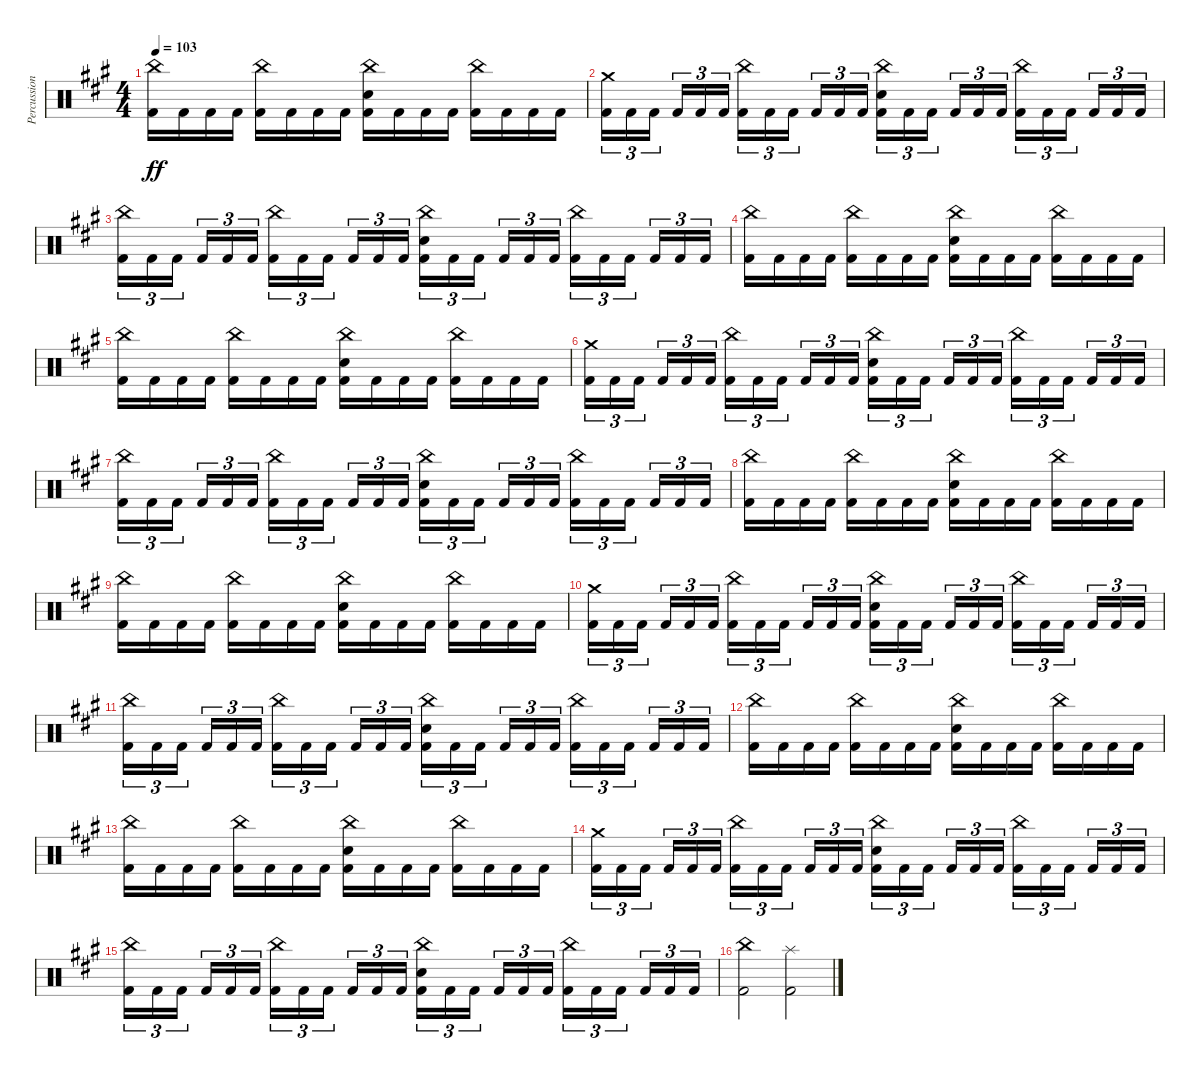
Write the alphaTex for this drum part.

\track ("Percussion" "Percussion") {instrument percussion bank 127}
\staff {score}
\articulation defaults
\ts (4 4)
\tempo 103
\clef neutral
\ks a
("China (hit)" "Kick (hit) 2").16{dy ff} "Kick (hit) 2".16 "Kick (hit) 2".16 "Kick (hit) 2".16 ("China (hit)" "Kick (hit) 2").16 "Kick (hit) 2".16 "Kick (hit) 2".16 "Kick (hit) 2".16 ("China (hit)" "Electric Snare (hit)" "Kick (hit) 2").16 "Kick (hit) 2".16 "Kick (hit) 2".16 "Kick (hit) 2".16 ("China (hit)" "Kick (hit) 2").16 "Kick (hit) 2".16 "Kick (hit) 2".16 "Kick (hit) 2".16 |
("Crash medium (hit)" "Kick (hit) 2").16{tu (3 2)} "Kick (hit) 2".16{tu (3 2)} "Kick (hit) 2".16{tu (3 2) beam splitsecondary} "Kick (hit) 2".16{tu (3 2)} "Kick (hit) 2".16{tu (3 2)} "Kick (hit) 2".16{tu (3 2)} ("China (hit)" "Kick (hit) 2").16{tu (3 2)} "Kick (hit) 2".16{tu (3 2)} "Kick (hit) 2".16{tu (3 2) beam splitsecondary} "Kick (hit) 2".16{tu (3 2)} "Kick (hit) 2".16{tu (3 2)} "Kick (hit) 2".16{tu (3 2)} ("China (hit)" "Electric Snare (hit)" "Kick (hit) 2").16{tu (3 2)} "Kick (hit) 2".16{tu (3 2)} "Kick (hit) 2".16{tu (3 2) beam splitsecondary} "Kick (hit) 2".16{tu (3 2)} "Kick (hit) 2".16{tu (3 2)} "Kick (hit) 2".16{tu (3 2)} ("China (hit)" "Kick (hit) 2").16{tu (3 2)} "Kick (hit) 2".16{tu (3 2)} "Kick (hit) 2".16{tu (3 2) beam splitsecondary} "Kick (hit) 2".16{tu (3 2)} "Kick (hit) 2".16{tu (3 2)} "Kick (hit) 2".16{tu (3 2)} |
("China (hit)" "Kick (hit) 2").16{tu (3 2)} "Kick (hit) 2".16{tu (3 2)} "Kick (hit) 2".16{tu (3 2) beam splitsecondary} "Kick (hit) 2".16{tu (3 2)} "Kick (hit) 2".16{tu (3 2)} "Kick (hit) 2".16{tu (3 2)} ("China (hit)" "Kick (hit) 2").16{tu (3 2)} "Kick (hit) 2".16{tu (3 2)} "Kick (hit) 2".16{tu (3 2) beam splitsecondary} "Kick (hit) 2".16{tu (3 2)} "Kick (hit) 2".16{tu (3 2)} "Kick (hit) 2".16{tu (3 2)} ("China (hit)" "Electric Snare (hit)" "Kick (hit) 2").16{tu (3 2)} "Kick (hit) 2".16{tu (3 2)} "Kick (hit) 2".16{tu (3 2) beam splitsecondary} "Kick (hit) 2".16{tu (3 2)} "Kick (hit) 2".16{tu (3 2)} "Kick (hit) 2".16{tu (3 2)} ("China (hit)" "Kick (hit) 2").16{tu (3 2)} "Kick (hit) 2".16{tu (3 2)} "Kick (hit) 2".16{tu (3 2) beam splitsecondary} "Kick (hit) 2".16{tu (3 2)} "Kick (hit) 2".16{tu (3 2)} "Kick (hit) 2".16{tu (3 2)} |
("China (hit)" "Kick (hit) 2").16 "Kick (hit) 2".16 "Kick (hit) 2".16 "Kick (hit) 2".16 ("China (hit)" "Kick (hit) 2").16 "Kick (hit) 2".16 "Kick (hit) 2".16 "Kick (hit) 2".16 ("China (hit)" "Electric Snare (hit)" "Kick (hit) 2").16 "Kick (hit) 2".16 "Kick (hit) 2".16 "Kick (hit) 2".16 ("China (hit)" "Kick (hit) 2").16 "Kick (hit) 2".16 "Kick (hit) 2".16 "Kick (hit) 2".16 |
("China (hit)" "Kick (hit) 2").16 "Kick (hit) 2".16 "Kick (hit) 2".16 "Kick (hit) 2".16 ("China (hit)" "Kick (hit) 2").16 "Kick (hit) 2".16 "Kick (hit) 2".16 "Kick (hit) 2".16 ("China (hit)" "Electric Snare (hit)" "Kick (hit) 2").16 "Kick (hit) 2".16 "Kick (hit) 2".16 "Kick (hit) 2".16 ("China (hit)" "Kick (hit) 2").16 "Kick (hit) 2".16 "Kick (hit) 2".16 "Kick (hit) 2".16 |
("Crash medium (hit)" "Kick (hit) 2").16{tu (3 2)} "Kick (hit) 2".16{tu (3 2)} "Kick (hit) 2".16{tu (3 2) beam splitsecondary} "Kick (hit) 2".16{tu (3 2)} "Kick (hit) 2".16{tu (3 2)} "Kick (hit) 2".16{tu (3 2)} ("China (hit)" "Kick (hit) 2").16{tu (3 2)} "Kick (hit) 2".16{tu (3 2)} "Kick (hit) 2".16{tu (3 2) beam splitsecondary} "Kick (hit) 2".16{tu (3 2)} "Kick (hit) 2".16{tu (3 2)} "Kick (hit) 2".16{tu (3 2)} ("China (hit)" "Electric Snare (hit)" "Kick (hit) 2").16{tu (3 2)} "Kick (hit) 2".16{tu (3 2)} "Kick (hit) 2".16{tu (3 2) beam splitsecondary} "Kick (hit) 2".16{tu (3 2)} "Kick (hit) 2".16{tu (3 2)} "Kick (hit) 2".16{tu (3 2)} ("China (hit)" "Kick (hit) 2").16{tu (3 2)} "Kick (hit) 2".16{tu (3 2)} "Kick (hit) 2".16{tu (3 2) beam splitsecondary} "Kick (hit) 2".16{tu (3 2)} "Kick (hit) 2".16{tu (3 2)} "Kick (hit) 2".16{tu (3 2)} |
("China (hit)" "Kick (hit) 2").16{tu (3 2)} "Kick (hit) 2".16{tu (3 2)} "Kick (hit) 2".16{tu (3 2) beam splitsecondary} "Kick (hit) 2".16{tu (3 2)} "Kick (hit) 2".16{tu (3 2)} "Kick (hit) 2".16{tu (3 2)} ("China (hit)" "Kick (hit) 2").16{tu (3 2)} "Kick (hit) 2".16{tu (3 2)} "Kick (hit) 2".16{tu (3 2) beam splitsecondary} "Kick (hit) 2".16{tu (3 2)} "Kick (hit) 2".16{tu (3 2)} "Kick (hit) 2".16{tu (3 2)} ("China (hit)" "Electric Snare (hit)" "Kick (hit) 2").16{tu (3 2)} "Kick (hit) 2".16{tu (3 2)} "Kick (hit) 2".16{tu (3 2) beam splitsecondary} "Kick (hit) 2".16{tu (3 2)} "Kick (hit) 2".16{tu (3 2)} "Kick (hit) 2".16{tu (3 2)} ("China (hit)" "Kick (hit) 2").16{tu (3 2)} "Kick (hit) 2".16{tu (3 2)} "Kick (hit) 2".16{tu (3 2) beam splitsecondary} "Kick (hit) 2".16{tu (3 2)} "Kick (hit) 2".16{tu (3 2)} "Kick (hit) 2".16{tu (3 2)} |
("China (hit)" "Kick (hit) 2").16 "Kick (hit) 2".16 "Kick (hit) 2".16 "Kick (hit) 2".16 ("China (hit)" "Kick (hit) 2").16 "Kick (hit) 2".16 "Kick (hit) 2".16 "Kick (hit) 2".16 ("China (hit)" "Electric Snare (hit)" "Kick (hit) 2").16 "Kick (hit) 2".16 "Kick (hit) 2".16 "Kick (hit) 2".16 ("China (hit)" "Kick (hit) 2").16 "Kick (hit) 2".16 "Kick (hit) 2".16 "Kick (hit) 2".16 |
("China (hit)" "Kick (hit) 2").16 "Kick (hit) 2".16 "Kick (hit) 2".16 "Kick (hit) 2".16 ("China (hit)" "Kick (hit) 2").16 "Kick (hit) 2".16 "Kick (hit) 2".16 "Kick (hit) 2".16 ("China (hit)" "Electric Snare (hit)" "Kick (hit) 2").16 "Kick (hit) 2".16 "Kick (hit) 2".16 "Kick (hit) 2".16 ("China (hit)" "Kick (hit) 2").16 "Kick (hit) 2".16 "Kick (hit) 2".16 "Kick (hit) 2".16 |
("Crash medium (hit)" "Kick (hit) 2").16{tu (3 2)} "Kick (hit) 2".16{tu (3 2)} "Kick (hit) 2".16{tu (3 2) beam splitsecondary} "Kick (hit) 2".16{tu (3 2)} "Kick (hit) 2".16{tu (3 2)} "Kick (hit) 2".16{tu (3 2)} ("China (hit)" "Kick (hit) 2").16{tu (3 2)} "Kick (hit) 2".16{tu (3 2)} "Kick (hit) 2".16{tu (3 2) beam splitsecondary} "Kick (hit) 2".16{tu (3 2)} "Kick (hit) 2".16{tu (3 2)} "Kick (hit) 2".16{tu (3 2)} ("China (hit)" "Electric Snare (hit)" "Kick (hit) 2").16{tu (3 2)} "Kick (hit) 2".16{tu (3 2)} "Kick (hit) 2".16{tu (3 2) beam splitsecondary} "Kick (hit) 2".16{tu (3 2)} "Kick (hit) 2".16{tu (3 2)} "Kick (hit) 2".16{tu (3 2)} ("China (hit)" "Kick (hit) 2").16{tu (3 2)} "Kick (hit) 2".16{tu (3 2)} "Kick (hit) 2".16{tu (3 2) beam splitsecondary} "Kick (hit) 2".16{tu (3 2)} "Kick (hit) 2".16{tu (3 2)} "Kick (hit) 2".16{tu (3 2)} |
("China (hit)" "Kick (hit) 2").16{tu (3 2)} "Kick (hit) 2".16{tu (3 2)} "Kick (hit) 2".16{tu (3 2) beam splitsecondary} "Kick (hit) 2".16{tu (3 2)} "Kick (hit) 2".16{tu (3 2)} "Kick (hit) 2".16{tu (3 2)} ("China (hit)" "Kick (hit) 2").16{tu (3 2)} "Kick (hit) 2".16{tu (3 2)} "Kick (hit) 2".16{tu (3 2) beam splitsecondary} "Kick (hit) 2".16{tu (3 2)} "Kick (hit) 2".16{tu (3 2)} "Kick (hit) 2".16{tu (3 2)} ("China (hit)" "Electric Snare (hit)" "Kick (hit) 2").16{tu (3 2)} "Kick (hit) 2".16{tu (3 2)} "Kick (hit) 2".16{tu (3 2) beam splitsecondary} "Kick (hit) 2".16{tu (3 2)} "Kick (hit) 2".16{tu (3 2)} "Kick (hit) 2".16{tu (3 2)} ("China (hit)" "Kick (hit) 2").16{tu (3 2)} "Kick (hit) 2".16{tu (3 2)} "Kick (hit) 2".16{tu (3 2) beam splitsecondary} "Kick (hit) 2".16{tu (3 2)} "Kick (hit) 2".16{tu (3 2)} "Kick (hit) 2".16{tu (3 2)} |
("China (hit)" "Kick (hit) 2").16 "Kick (hit) 2".16 "Kick (hit) 2".16 "Kick (hit) 2".16 ("China (hit)" "Kick (hit) 2").16 "Kick (hit) 2".16 "Kick (hit) 2".16 "Kick (hit) 2".16 ("China (hit)" "Electric Snare (hit)" "Kick (hit) 2").16 "Kick (hit) 2".16 "Kick (hit) 2".16 "Kick (hit) 2".16 ("China (hit)" "Kick (hit) 2").16 "Kick (hit) 2".16 "Kick (hit) 2".16 "Kick (hit) 2".16 |
("China (hit)" "Kick (hit) 2").16 "Kick (hit) 2".16 "Kick (hit) 2".16 "Kick (hit) 2".16 ("China (hit)" "Kick (hit) 2").16 "Kick (hit) 2".16 "Kick (hit) 2".16 "Kick (hit) 2".16 ("China (hit)" "Electric Snare (hit)" "Kick (hit) 2").16 "Kick (hit) 2".16 "Kick (hit) 2".16 "Kick (hit) 2".16 ("China (hit)" "Kick (hit) 2").16 "Kick (hit) 2".16 "Kick (hit) 2".16 "Kick (hit) 2".16 |
("Crash medium (hit)" "Kick (hit) 2").16{tu (3 2)} "Kick (hit) 2".16{tu (3 2)} "Kick (hit) 2".16{tu (3 2) beam splitsecondary} "Kick (hit) 2".16{tu (3 2)} "Kick (hit) 2".16{tu (3 2)} "Kick (hit) 2".16{tu (3 2)} ("China (hit)" "Kick (hit) 2").16{tu (3 2)} "Kick (hit) 2".16{tu (3 2)} "Kick (hit) 2".16{tu (3 2) beam splitsecondary} "Kick (hit) 2".16{tu (3 2)} "Kick (hit) 2".16{tu (3 2)} "Kick (hit) 2".16{tu (3 2)} ("China (hit)" "Electric Snare (hit)" "Kick (hit) 2").16{tu (3 2)} "Kick (hit) 2".16{tu (3 2)} "Kick (hit) 2".16{tu (3 2) beam splitsecondary} "Kick (hit) 2".16{tu (3 2)} "Kick (hit) 2".16{tu (3 2)} "Kick (hit) 2".16{tu (3 2)} ("China (hit)" "Kick (hit) 2").16{tu (3 2)} "Kick (hit) 2".16{tu (3 2)} "Kick (hit) 2".16{tu (3 2) beam splitsecondary} "Kick (hit) 2".16{tu (3 2)} "Kick (hit) 2".16{tu (3 2)} "Kick (hit) 2".16{tu (3 2)} |
("China (hit)" "Kick (hit) 2").16{tu (3 2)} "Kick (hit) 2".16{tu (3 2)} "Kick (hit) 2".16{tu (3 2) beam splitsecondary} "Kick (hit) 2".16{tu (3 2)} "Kick (hit) 2".16{tu (3 2)} "Kick (hit) 2".16{tu (3 2)} ("China (hit)" "Kick (hit) 2").16{tu (3 2)} "Kick (hit) 2".16{tu (3 2)} "Kick (hit) 2".16{tu (3 2) beam splitsecondary} "Kick (hit) 2".16{tu (3 2)} "Kick (hit) 2".16{tu (3 2)} "Kick (hit) 2".16{tu (3 2)} ("China (hit)" "Electric Snare (hit)" "Kick (hit) 2").16{tu (3 2)} "Kick (hit) 2".16{tu (3 2)} "Kick (hit) 2".16{tu (3 2) beam splitsecondary} "Kick (hit) 2".16{tu (3 2)} "Kick (hit) 2".16{tu (3 2)} "Kick (hit) 2".16{tu (3 2)} ("China (hit)" "Kick (hit) 2").16{tu (3 2)} "Kick (hit) 2".16{tu (3 2)} "Kick (hit) 2".16{tu (3 2) beam splitsecondary} "Kick (hit) 2".16{tu (3 2)} "Kick (hit) 2".16{tu (3 2)} "Kick (hit) 2".16{tu (3 2)} |
("China (hit)" "Kick (hit) 2").2 ("Splash (hit)" "Kick (hit) 2").2
